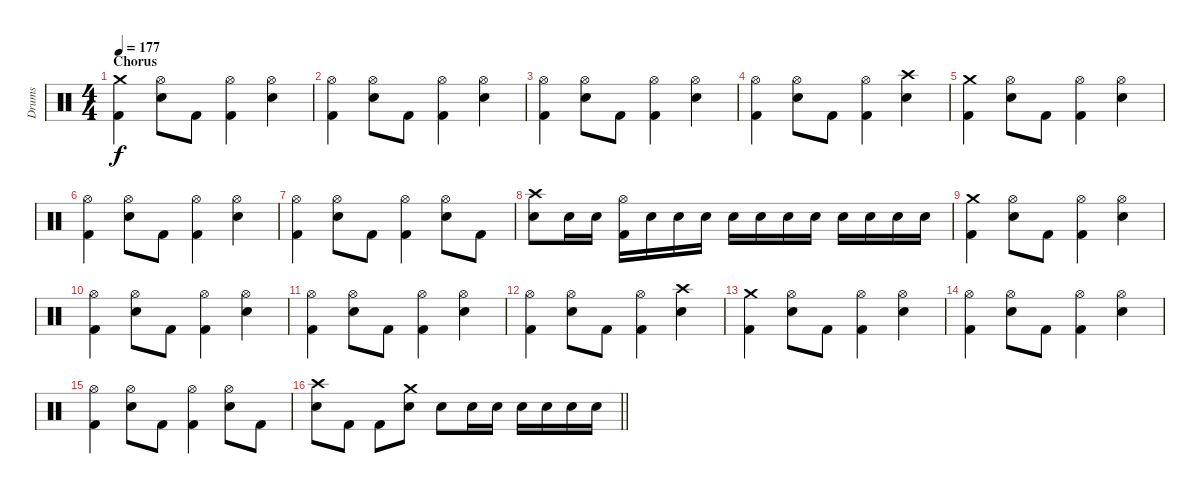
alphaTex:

\track ("Drums" "Drums") {instrument percussion}
\staff {score}
\articulation defaults
\ts (4 4)
\section ("" "Chorus")
\tempo 177
\clef neutral
\ks c
("Crash medium (hit)" "Kick (hit) 2").4{dy f} ("Hi-Hat (open)" "Electric Snare (hit)").8 "Kick (hit) 2".8 ("Hi-Hat (open)" "Kick (hit) 2").4 ("Hi-Hat (open)" "Electric Snare (hit)").4 |
("Hi-Hat (open)" "Kick (hit) 2").4 ("Hi-Hat (open)" "Electric Snare (hit)").8 "Kick (hit) 2".8 ("Hi-Hat (open)" "Kick (hit) 2").4 ("Hi-Hat (open)" "Electric Snare (hit)").4 |
("Hi-Hat (open)" "Kick (hit) 2").4 ("Hi-Hat (open)" "Electric Snare (hit)").8 "Kick (hit) 2".8 ("Hi-Hat (open)" "Kick (hit) 2").4 ("Hi-Hat (open)" "Electric Snare (hit)").4 |
("Hi-Hat (open)" "Kick (hit) 2").4 ("Hi-Hat (open)" "Electric Snare (hit)").8 "Kick (hit) 2".8 ("Hi-Hat (open)" "Kick (hit) 2").4 ("Crash high (hit)" "Electric Snare (hit)").4 |
("Crash medium (hit)" "Kick (hit) 2").4 ("Hi-Hat (open)" "Electric Snare (hit)").8 "Kick (hit) 2".8 ("Hi-Hat (open)" "Kick (hit) 2").4 ("Hi-Hat (open)" "Electric Snare (hit)").4 |
("Hi-Hat (open)" "Kick (hit) 2").4 ("Hi-Hat (open)" "Electric Snare (hit)").8 "Kick (hit) 2".8 ("Hi-Hat (open)" "Kick (hit) 2").4 ("Hi-Hat (open)" "Electric Snare (hit)").4 |
("Hi-Hat (open)" "Kick (hit) 2").4 ("Hi-Hat (open)" "Electric Snare (hit)").8 "Kick (hit) 2".8 ("Hi-Hat (open)" "Kick (hit) 2").4 ("Hi-Hat (open)" "Electric Snare (hit)").8 "Kick (hit) 2".8 |
("Crash high (hit)" "Electric Snare (hit)").8 "Electric Snare (hit)".16 "Electric Snare (hit)".16 ("Hi-Hat (open)" "Kick (hit) 2").16 "Electric Snare (hit)".16 "Electric Snare (hit)".16 "Electric Snare (hit)".16 "Electric Snare (hit)".16 "Electric Snare (hit)".16 "Electric Snare (hit)".16 "Electric Snare (hit)".16 "Electric Snare (hit)".16 "Electric Snare (hit)".16 "Electric Snare (hit)".16 "Electric Snare (hit)".16 |
("Crash medium (hit)" "Kick (hit) 2").4 ("Hi-Hat (open)" "Electric Snare (hit)").8 "Kick (hit) 2".8 ("Hi-Hat (open)" "Kick (hit) 2").4 ("Hi-Hat (open)" "Electric Snare (hit)").4 |
("Hi-Hat (open)" "Kick (hit) 2").4 ("Hi-Hat (open)" "Electric Snare (hit)").8 "Kick (hit) 2".8 ("Hi-Hat (open)" "Kick (hit) 2").4 ("Hi-Hat (open)" "Electric Snare (hit)").4 |
("Hi-Hat (open)" "Kick (hit) 2").4 ("Hi-Hat (open)" "Electric Snare (hit)").8 "Kick (hit) 2".8 ("Hi-Hat (open)" "Kick (hit) 2").4 ("Hi-Hat (open)" "Electric Snare (hit)").4 |
("Hi-Hat (open)" "Kick (hit) 2").4 ("Hi-Hat (open)" "Electric Snare (hit)").8 "Kick (hit) 2".8 ("Hi-Hat (open)" "Kick (hit) 2").4 ("Crash high (hit)" "Electric Snare (hit)").4 |
("Crash medium (hit)" "Kick (hit) 2").4 ("Hi-Hat (open)" "Electric Snare (hit)").8 "Kick (hit) 2".8 ("Hi-Hat (open)" "Kick (hit) 2").4 ("Hi-Hat (open)" "Electric Snare (hit)").4 |
("Hi-Hat (open)" "Kick (hit) 2").4 ("Hi-Hat (open)" "Electric Snare (hit)").8 "Kick (hit) 2".8 ("Hi-Hat (open)" "Kick (hit) 2").4 ("Hi-Hat (open)" "Electric Snare (hit)").4 |
("Hi-Hat (open)" "Kick (hit) 2").4 ("Hi-Hat (open)" "Electric Snare (hit)").8 "Kick (hit) 2".8 ("Hi-Hat (open)" "Kick (hit) 2").4 ("Hi-Hat (open)" "Electric Snare (hit)").8 "Kick (hit) 2".8 |
\barLineRight lightlight
("Crash high (hit)" "Electric Snare (hit)").8 "Kick (hit) 2".8 "Kick (hit) 2".8 ("Crash medium (hit)" "Electric Snare (hit)").8 "Electric Snare (hit)".8 "Electric Snare (hit)".16 "Electric Snare (hit)".16 "Electric Snare (hit)".16 "Electric Snare (hit)".16 "Electric Snare (hit)".16 "Electric Snare (hit)".16
